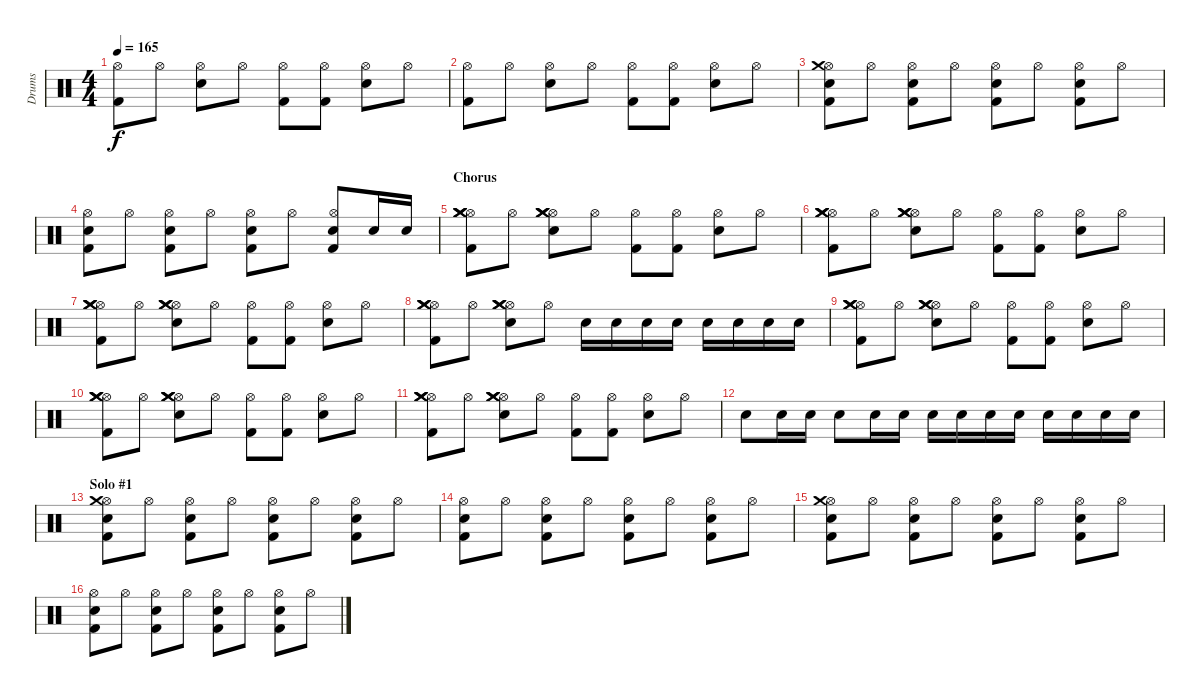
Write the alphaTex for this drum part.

\track ("Drums" "Drums") {instrument percussion}
\staff {score}
\articulation defaults
\ts (4 4)
\tempo 165
\clef neutral
\ks c
("Kick (hit) 2" "Hi-Hat (open)").8{dy f} "Hi-Hat (open)".8 ("Electric Snare (hit)" "Hi-Hat (open)").8 "Hi-Hat (open)".8 ("Kick (hit) 2" "Hi-Hat (open)").8 ("Kick (hit) 2" "Hi-Hat (open)").8 ("Electric Snare (hit)" "Hi-Hat (open)").8 "Hi-Hat (open)".8 |
("Kick (hit) 2" "Hi-Hat (open)").8 "Hi-Hat (open)".8 ("Electric Snare (hit)" "Hi-Hat (open)").8 "Hi-Hat (open)".8 ("Kick (hit) 2" "Hi-Hat (open)").8 ("Kick (hit) 2" "Hi-Hat (open)").8 ("Electric Snare (hit)" "Hi-Hat (open)").8 "Hi-Hat (open)".8 |
("Electric Snare (hit)" "Kick (hit) 2" "Hi-Hat (open)" "Crash medium (hit)").8 "Hi-Hat (open)".8 ("Electric Snare (hit)" "Kick (hit) 2" "Hi-Hat (open)").8 "Hi-Hat (open)".8 ("Electric Snare (hit)" "Kick (hit) 2" "Hi-Hat (open)").8 "Hi-Hat (open)".8 ("Electric Snare (hit)" "Kick (hit) 2" "Hi-Hat (open)").8 "Hi-Hat (open)".8 |
("Electric Snare (hit)" "Kick (hit) 2" "Hi-Hat (open)").8 "Hi-Hat (open)".8 ("Electric Snare (hit)" "Kick (hit) 2" "Hi-Hat (open)").8 "Hi-Hat (open)".8 ("Electric Snare (hit)" "Kick (hit) 2" "Hi-Hat (open)").8 "Hi-Hat (open)".8 ("Electric Snare (hit)" "Kick (hit) 2" "Hi-Hat (open)").8 "Electric Snare (hit)".16 "Electric Snare (hit)".16 |
\section ("" "Chorus")
("Kick (hit) 2" "Hi-Hat (open)" "Crash medium (hit)" "Crash medium (hit)" "Crash medium (hit)").8 "Hi-Hat (open)".8 ("Electric Snare (hit)" "Hi-Hat (open)" "Crash medium (hit)" "Crash medium (hit)" "Crash medium (hit)").8 "Hi-Hat (open)".8 ("Kick (hit) 2" "Hi-Hat (open)").8 ("Kick (hit) 2" "Hi-Hat (open)").8 ("Electric Snare (hit)" "Hi-Hat (open)").8 "Hi-Hat (open)".8 |
("Kick (hit) 2" "Hi-Hat (open)" "Crash medium (hit)" "Crash medium (hit)" "Crash medium (hit)").8 "Hi-Hat (open)".8 ("Electric Snare (hit)" "Hi-Hat (open)" "Crash medium (hit)" "Crash medium (hit)" "Crash medium (hit)").8 "Hi-Hat (open)".8 ("Kick (hit) 2" "Hi-Hat (open)").8 ("Kick (hit) 2" "Hi-Hat (open)").8 ("Electric Snare (hit)" "Hi-Hat (open)").8 "Hi-Hat (open)".8 |
("Kick (hit) 2" "Hi-Hat (open)" "Crash medium (hit)" "Crash medium (hit)" "Crash medium (hit)").8 "Hi-Hat (open)".8 ("Electric Snare (hit)" "Hi-Hat (open)" "Crash medium (hit)" "Crash medium (hit)" "Crash medium (hit)").8 "Hi-Hat (open)".8 ("Kick (hit) 2" "Hi-Hat (open)").8 ("Kick (hit) 2" "Hi-Hat (open)").8 ("Electric Snare (hit)" "Hi-Hat (open)").8 "Hi-Hat (open)".8 |
("Kick (hit) 2" "Hi-Hat (open)" "Crash medium (hit)" "Crash medium (hit)" "Crash medium (hit)").8 "Hi-Hat (open)".8 ("Electric Snare (hit)" "Hi-Hat (open)" "Crash medium (hit)" "Crash medium (hit)" "Crash medium (hit)").8 "Hi-Hat (open)".8 "Electric Snare (hit)".16 "Electric Snare (hit)".16 "Electric Snare (hit)".16 "Electric Snare (hit)".16 "Electric Snare (hit)".16 "Electric Snare (hit)".16 "Electric Snare (hit)".16 "Electric Snare (hit)".16 |
("Kick (hit) 2" "Hi-Hat (open)" "Crash medium (hit)" "Crash medium (hit)" "Crash medium (hit)").8 "Hi-Hat (open)".8 ("Electric Snare (hit)" "Hi-Hat (open)" "Crash medium (hit)" "Crash medium (hit)" "Crash medium (hit)").8 "Hi-Hat (open)".8 ("Kick (hit) 2" "Hi-Hat (open)").8 ("Kick (hit) 2" "Hi-Hat (open)").8 ("Electric Snare (hit)" "Hi-Hat (open)").8 "Hi-Hat (open)".8 |
("Kick (hit) 2" "Hi-Hat (open)" "Crash medium (hit)" "Crash medium (hit)" "Crash medium (hit)").8 "Hi-Hat (open)".8 ("Electric Snare (hit)" "Hi-Hat (open)" "Crash medium (hit)" "Crash medium (hit)" "Crash medium (hit)").8 "Hi-Hat (open)".8 ("Kick (hit) 2" "Hi-Hat (open)").8 ("Kick (hit) 2" "Hi-Hat (open)").8 ("Electric Snare (hit)" "Hi-Hat (open)").8 "Hi-Hat (open)".8 |
("Kick (hit) 2" "Hi-Hat (open)" "Crash medium (hit)" "Crash medium (hit)" "Crash medium (hit)").8 "Hi-Hat (open)".8 ("Electric Snare (hit)" "Hi-Hat (open)" "Crash medium (hit)" "Crash medium (hit)" "Crash medium (hit)").8 "Hi-Hat (open)".8 ("Kick (hit) 2" "Hi-Hat (open)").8 ("Kick (hit) 2" "Hi-Hat (open)").8 ("Electric Snare (hit)" "Hi-Hat (open)").8 "Hi-Hat (open)".8 |
"Electric Snare (hit)".8 "Electric Snare (hit)".16 "Electric Snare (hit)".16 "Electric Snare (hit)".8 "Electric Snare (hit)".16 "Electric Snare (hit)".16 "Electric Snare (hit)".16 "Electric Snare (hit)".16 "Electric Snare (hit)".16 "Electric Snare (hit)".16 "Electric Snare (hit)".16 "Electric Snare (hit)".16 "Electric Snare (hit)".16 "Electric Snare (hit)".16 |
\section ("" "Solo #1")
("Electric Snare (hit)" "Kick (hit) 2" "Hi-Hat (open)" "Crash medium (hit)").8 "Hi-Hat (open)".8 ("Electric Snare (hit)" "Kick (hit) 2" "Hi-Hat (open)").8 "Hi-Hat (open)".8 ("Electric Snare (hit)" "Kick (hit) 2" "Hi-Hat (open)").8 "Hi-Hat (open)".8 ("Electric Snare (hit)" "Kick (hit) 2" "Hi-Hat (open)").8 "Hi-Hat (open)".8 |
("Electric Snare (hit)" "Kick (hit) 2" "Hi-Hat (open)").8 "Hi-Hat (open)".8 ("Electric Snare (hit)" "Kick (hit) 2" "Hi-Hat (open)").8 "Hi-Hat (open)".8 ("Electric Snare (hit)" "Kick (hit) 2" "Hi-Hat (open)").8 "Hi-Hat (open)".8 ("Electric Snare (hit)" "Kick (hit) 2" "Hi-Hat (open)").8 "Hi-Hat (open)".8 |
("Electric Snare (hit)" "Kick (hit) 2" "Hi-Hat (open)" "Crash medium (hit)").8 "Hi-Hat (open)".8 ("Electric Snare (hit)" "Kick (hit) 2" "Hi-Hat (open)").8 "Hi-Hat (open)".8 ("Electric Snare (hit)" "Kick (hit) 2" "Hi-Hat (open)").8 "Hi-Hat (open)".8 ("Electric Snare (hit)" "Kick (hit) 2" "Hi-Hat (open)").8 "Hi-Hat (open)".8 |
("Electric Snare (hit)" "Kick (hit) 2" "Hi-Hat (open)").8 "Hi-Hat (open)".8 ("Electric Snare (hit)" "Kick (hit) 2" "Hi-Hat (open)").8 "Hi-Hat (open)".8 ("Electric Snare (hit)" "Kick (hit) 2" "Hi-Hat (open)").8 "Hi-Hat (open)".8 ("Electric Snare (hit)" "Kick (hit) 2" "Hi-Hat (open)").8 "Hi-Hat (open)".8
